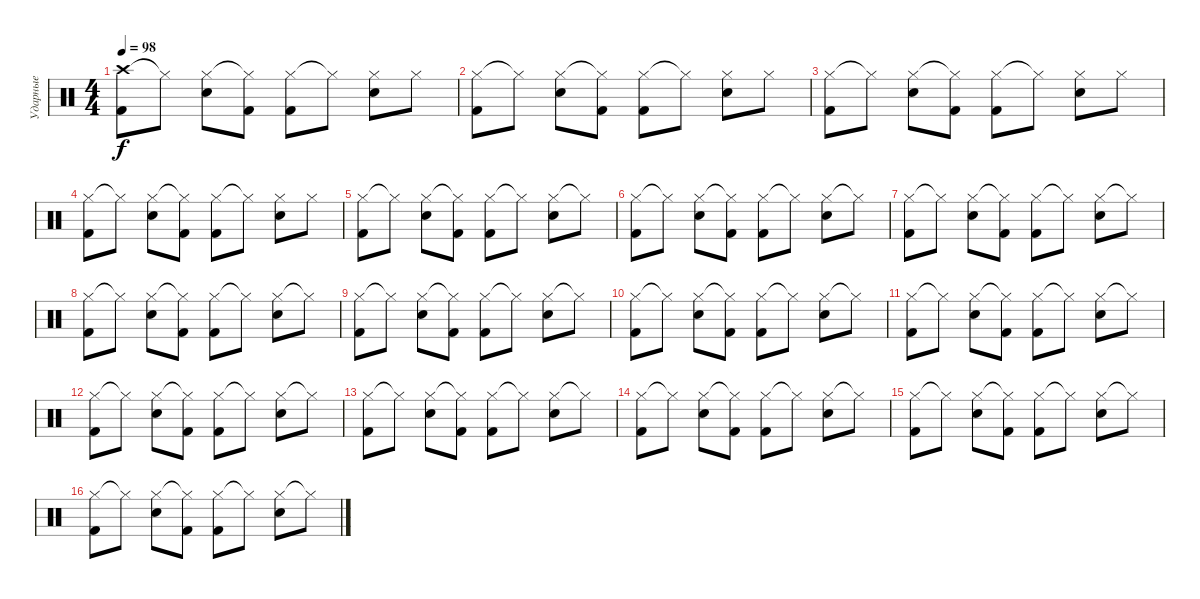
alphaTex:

\track ("Ударные" "Ударные") {instrument percussion}
\staff {score}
\articulation defaults
\ts (4 4)
\tempo 98
\clef neutral
\ks c
("Crash high (hit)" "Kick (hit) 2").8{dy f} "Hi-Hat (closed)"{t}.8 ("Hi-Hat (closed)" "Snare (hit) 2").8 ("Hi-Hat (closed)"{t} "Kick (hit) 2").8 ("Hi-Hat (closed)" "Kick (hit) 2").8 "Hi-Hat (closed)"{t}.8 ("Hi-Hat (closed)" "Snare (hit) 2").8 "Hi-Hat (closed)".8 |
("Hi-Hat (closed)" "Kick (hit) 2").8 "Hi-Hat (closed)"{t}.8 ("Hi-Hat (closed)" "Snare (hit) 2").8 ("Hi-Hat (closed)"{t} "Kick (hit) 2").8 ("Hi-Hat (closed)" "Kick (hit) 2").8 "Hi-Hat (closed)"{t}.8 ("Hi-Hat (closed)" "Snare (hit) 2").8 "Hi-Hat (closed)".8 |
("Hi-Hat (closed)" "Kick (hit) 2").8 "Hi-Hat (closed)"{t}.8 ("Hi-Hat (closed)" "Snare (hit) 2").8 ("Hi-Hat (closed)"{t} "Kick (hit) 2").8 ("Hi-Hat (closed)" "Kick (hit) 2").8 "Hi-Hat (closed)"{t}.8 ("Hi-Hat (closed)" "Snare (hit) 2").8 "Hi-Hat (closed)".8 |
("Hi-Hat (closed)" "Kick (hit) 2").8 "Hi-Hat (closed)"{t}.8 ("Hi-Hat (closed)" "Snare (hit) 2").8 ("Hi-Hat (closed)"{t} "Kick (hit) 2").8 ("Hi-Hat (closed)" "Kick (hit) 2").8 "Hi-Hat (closed)"{t}.8 ("Hi-Hat (closed)" "Snare (hit) 2").8 "Hi-Hat (closed)".8 |
("Hi-Hat (closed)" "Kick (hit) 2").8 "Hi-Hat (closed)"{t}.8 ("Hi-Hat (closed)" "Snare (hit) 2").8 ("Hi-Hat (closed)"{t} "Kick (hit) 2").8 ("Hi-Hat (closed)" "Kick (hit) 2").8 "Hi-Hat (closed)"{t}.8 ("Hi-Hat (closed)" "Snare (hit) 2").8 "Hi-Hat (closed)"{t}.8 |
("Hi-Hat (closed)" "Kick (hit) 2").8 "Hi-Hat (closed)"{t}.8 ("Hi-Hat (closed)" "Snare (hit) 2").8 ("Hi-Hat (closed)"{t} "Kick (hit) 2").8 ("Hi-Hat (closed)" "Kick (hit) 2").8 "Hi-Hat (closed)"{t}.8 ("Hi-Hat (closed)" "Snare (hit) 2").8 "Hi-Hat (closed)"{t}.8 |
("Hi-Hat (closed)" "Kick (hit) 2").8 "Hi-Hat (closed)"{t}.8 ("Hi-Hat (closed)" "Snare (hit) 2").8 ("Hi-Hat (closed)"{t} "Kick (hit) 2").8 ("Hi-Hat (closed)" "Kick (hit) 2").8 "Hi-Hat (closed)"{t}.8 ("Hi-Hat (closed)" "Snare (hit) 2").8 "Hi-Hat (closed)"{t}.8 |
("Hi-Hat (closed)" "Kick (hit) 2").8 "Hi-Hat (closed)"{t}.8 ("Hi-Hat (closed)" "Snare (hit) 2").8 ("Hi-Hat (closed)"{t} "Kick (hit) 2").8 ("Hi-Hat (closed)" "Kick (hit) 2").8 "Hi-Hat (closed)"{t}.8 ("Hi-Hat (closed)" "Snare (hit) 2").8 "Hi-Hat (closed)"{t}.8 |
("Hi-Hat (closed)" "Kick (hit) 2").8 "Hi-Hat (closed)"{t}.8 ("Hi-Hat (closed)" "Snare (hit) 2").8 ("Hi-Hat (closed)"{t} "Kick (hit) 2").8 ("Hi-Hat (closed)" "Kick (hit) 2").8 "Hi-Hat (closed)"{t}.8 ("Hi-Hat (closed)" "Snare (hit) 2").8 "Hi-Hat (closed)"{t}.8 |
("Hi-Hat (closed)" "Kick (hit) 2").8 "Hi-Hat (closed)"{t}.8 ("Hi-Hat (closed)" "Snare (hit) 2").8 ("Hi-Hat (closed)"{t} "Kick (hit) 2").8 ("Hi-Hat (closed)" "Kick (hit) 2").8 "Hi-Hat (closed)"{t}.8 ("Hi-Hat (closed)" "Snare (hit) 2").8 "Hi-Hat (closed)"{t}.8 |
("Hi-Hat (closed)" "Kick (hit) 2").8 "Hi-Hat (closed)"{t}.8 ("Hi-Hat (closed)" "Snare (hit) 2").8 ("Hi-Hat (closed)"{t} "Kick (hit) 2").8 ("Hi-Hat (closed)" "Kick (hit) 2").8 "Hi-Hat (closed)"{t}.8 ("Hi-Hat (closed)" "Snare (hit) 2").8 "Hi-Hat (closed)"{t}.8 |
("Hi-Hat (closed)" "Kick (hit) 2").8 "Hi-Hat (closed)"{t}.8 ("Hi-Hat (closed)" "Snare (hit) 2").8 ("Hi-Hat (closed)"{t} "Kick (hit) 2").8 ("Hi-Hat (closed)" "Kick (hit) 2").8 "Hi-Hat (closed)"{t}.8 ("Hi-Hat (closed)" "Snare (hit) 2").8 "Hi-Hat (closed)"{t}.8 |
("Hi-Hat (closed)" "Kick (hit) 2").8 "Hi-Hat (closed)"{t}.8 ("Hi-Hat (closed)" "Snare (hit) 2").8 ("Hi-Hat (closed)"{t} "Kick (hit) 2").8 ("Hi-Hat (closed)" "Kick (hit) 2").8 "Hi-Hat (closed)"{t}.8 ("Hi-Hat (closed)" "Snare (hit) 2").8 "Hi-Hat (closed)"{t}.8 |
("Hi-Hat (closed)" "Kick (hit) 2").8 "Hi-Hat (closed)"{t}.8 ("Hi-Hat (closed)" "Snare (hit) 2").8 ("Hi-Hat (closed)"{t} "Kick (hit) 2").8 ("Hi-Hat (closed)" "Kick (hit) 2").8 "Hi-Hat (closed)"{t}.8 ("Hi-Hat (closed)" "Snare (hit) 2").8 "Hi-Hat (closed)"{t}.8 |
("Hi-Hat (closed)" "Kick (hit) 2").8 "Hi-Hat (closed)"{t}.8 ("Hi-Hat (closed)" "Snare (hit) 2").8 ("Hi-Hat (closed)"{t} "Kick (hit) 2").8 ("Hi-Hat (closed)" "Kick (hit) 2").8 "Hi-Hat (closed)"{t}.8 ("Hi-Hat (closed)" "Snare (hit) 2").8 "Hi-Hat (closed)"{t}.8 |
("Hi-Hat (closed)" "Kick (hit) 2").8 "Hi-Hat (closed)"{t}.8 ("Hi-Hat (closed)" "Snare (hit) 2").8 ("Hi-Hat (closed)"{t} "Kick (hit) 2").8 ("Hi-Hat (closed)" "Kick (hit) 2").8 "Hi-Hat (closed)"{t}.8 ("Hi-Hat (closed)" "Snare (hit) 2").8 "Hi-Hat (closed)"{t}.8
